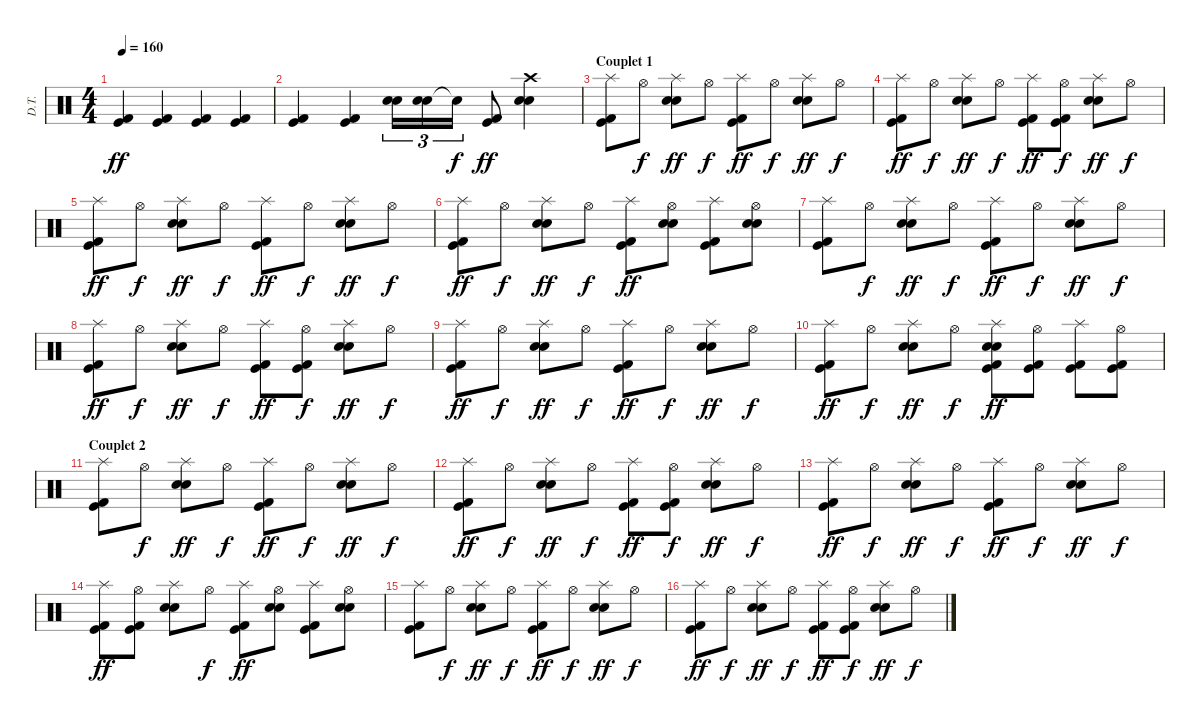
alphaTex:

\track ("D.T." "D.T.") {instrument percussion}
\staff {score}
\articulation defaults
\ts (4 4)
\tempo 160
\clef neutral
\ks c
("Kick (hit)" "Kick (hit) 2").4{dy ff} ("Kick (hit)" "Kick (hit) 2").4 ("Kick (hit)" "Kick (hit) 2").4 ("Kick (hit)" "Kick (hit) 2").4 |
("Kick (hit)" "Kick (hit) 2").4 ("Kick (hit)" "Kick (hit) 2").4 ("Snare (hit) 2" "Electric Snare (hit)").16{tu (3 2)} ("Snare (hit) 2" "Electric Snare (hit)").16{tu (3 2)} "Electric Snare (hit)"{t}.16{tu (3 2) dy f} ("Kick (hit)" "Kick (hit) 2").8{dy ff} ("Crash high (hit)" "Snare (hit) 2" "Electric Snare (hit)").4 |
\section ("" "Couplet 1")
("Splash (hit)" "Kick (hit)" "Kick (hit) 2").8 "Hi-Hat (open)".8{dy f} ("Splash (hit)" "Snare (hit) 2" "Electric Snare (hit)").8{dy ff} "Hi-Hat (open)".8{dy f} ("Splash (hit)" "Kick (hit)" "Kick (hit) 2").8{dy ff} "Hi-Hat (open)".8{dy f} ("Splash (hit)" "Snare (hit) 2" "Electric Snare (hit)").8{dy ff} "Hi-Hat (open)".8{dy f} |
("Splash (hit)" "Kick (hit)" "Kick (hit) 2").8{dy ff} "Hi-Hat (open)".8{dy f} ("Splash (hit)" "Snare (hit) 2" "Electric Snare (hit)").8{dy ff} "Hi-Hat (open)".8{dy f} ("Splash (hit)" "Kick (hit)" "Kick (hit) 2").8{dy ff} ("Hi-Hat (open)" "Kick (hit)" "Kick (hit) 2").8{dy f} ("Splash (hit)" "Snare (hit) 2" "Electric Snare (hit)").8{dy ff} "Hi-Hat (open)".8{dy f} |
("Splash (hit)" "Kick (hit)" "Kick (hit) 2").8{dy ff} "Hi-Hat (open)".8{dy f} ("Splash (hit)" "Snare (hit) 2" "Electric Snare (hit)").8{dy ff} "Hi-Hat (open)".8{dy f} ("Splash (hit)" "Kick (hit)" "Kick (hit) 2").8{dy ff} "Hi-Hat (open)".8{dy f} ("Splash (hit)" "Snare (hit) 2" "Electric Snare (hit)").8{dy ff} "Hi-Hat (open)".8{dy f} |
("Splash (hit)" "Kick (hit)" "Kick (hit) 2").8{dy ff} "Hi-Hat (open)".8{dy f} ("Splash (hit)" "Snare (hit) 2" "Electric Snare (hit)").8{dy ff} "Hi-Hat (open)".8{dy f} ("Splash (hit)" "Kick (hit)" "Kick (hit) 2").8{dy ff} ("Hi-Hat (open)" "Snare (hit) 2" "Electric Snare (hit)").8 ("Splash (hit)" "Kick (hit)" "Kick (hit) 2").8 ("Hi-Hat (open)" "Snare (hit) 2" "Electric Snare (hit)").8 |
("Splash (hit)" "Kick (hit)" "Kick (hit) 2").8 "Hi-Hat (open)".8{dy f} ("Splash (hit)" "Snare (hit) 2" "Electric Snare (hit)").8{dy ff} "Hi-Hat (open)".8{dy f} ("Splash (hit)" "Kick (hit)" "Kick (hit) 2").8{dy ff} "Hi-Hat (open)".8{dy f} ("Splash (hit)" "Snare (hit) 2" "Electric Snare (hit)").8{dy ff} "Hi-Hat (open)".8{dy f} |
("Splash (hit)" "Kick (hit)" "Kick (hit) 2").8{dy ff} "Hi-Hat (open)".8{dy f} ("Splash (hit)" "Snare (hit) 2" "Electric Snare (hit)").8{dy ff} "Hi-Hat (open)".8{dy f} ("Splash (hit)" "Kick (hit)" "Kick (hit) 2").8{dy ff} ("Hi-Hat (open)" "Kick (hit)" "Kick (hit) 2").8{dy f} ("Splash (hit)" "Snare (hit) 2" "Electric Snare (hit)").8{dy ff} "Hi-Hat (open)".8{dy f} |
("Splash (hit)" "Kick (hit)" "Kick (hit) 2").8{dy ff} "Hi-Hat (open)".8{dy f} ("Splash (hit)" "Snare (hit) 2" "Electric Snare (hit)").8{dy ff} "Hi-Hat (open)".8{dy f} ("Splash (hit)" "Kick (hit)" "Kick (hit) 2").8{dy ff} "Hi-Hat (open)".8{dy f} ("Splash (hit)" "Snare (hit) 2" "Electric Snare (hit)").8{dy ff} "Hi-Hat (open)".8{dy f} |
("Splash (hit)" "Kick (hit)" "Kick (hit) 2").8{dy ff} "Hi-Hat (open)".8{dy f} ("Splash (hit)" "Snare (hit) 2" "Electric Snare (hit)").8{dy ff} "Hi-Hat (open)".8{dy f} ("Splash (hit)" "Snare (hit) 2" "Electric Snare (hit)" "Kick (hit)" "Kick (hit) 2").8{dy ff} ("Hi-Hat (open)" "Kick (hit)" "Kick (hit) 2").8 ("Splash (hit)" "Kick (hit)" "Kick (hit) 2").8 ("Hi-Hat (open)" "Kick (hit)" "Kick (hit) 2").8 |
\section ("" "Couplet 2")
("Splash (hit)" "Kick (hit)" "Kick (hit) 2").8 "Hi-Hat (open)".8{dy f} ("Splash (hit)" "Snare (hit) 2" "Electric Snare (hit)").8{dy ff} "Hi-Hat (open)".8{dy f} ("Splash (hit)" "Kick (hit)" "Kick (hit) 2").8{dy ff} "Hi-Hat (open)".8{dy f} ("Splash (hit)" "Snare (hit) 2" "Electric Snare (hit)").8{dy ff} "Hi-Hat (open)".8{dy f} |
("Splash (hit)" "Kick (hit)" "Kick (hit) 2").8{dy ff} "Hi-Hat (open)".8{dy f} ("Splash (hit)" "Snare (hit) 2" "Electric Snare (hit)").8{dy ff} "Hi-Hat (open)".8{dy f} ("Splash (hit)" "Kick (hit)" "Kick (hit) 2").8{dy ff} ("Hi-Hat (open)" "Kick (hit)" "Kick (hit) 2").8{dy f} ("Splash (hit)" "Snare (hit) 2" "Electric Snare (hit)").8{dy ff} "Hi-Hat (open)".8{dy f} |
("Splash (hit)" "Kick (hit)" "Kick (hit) 2").8{dy ff} "Hi-Hat (open)".8{dy f} ("Splash (hit)" "Snare (hit) 2" "Electric Snare (hit)").8{dy ff} "Hi-Hat (open)".8{dy f} ("Splash (hit)" "Kick (hit)" "Kick (hit) 2").8{dy ff} "Hi-Hat (open)".8{dy f} ("Splash (hit)" "Snare (hit) 2" "Electric Snare (hit)").8{dy ff} "Hi-Hat (open)".8{dy f} |
("Splash (hit)" "Kick (hit)" "Kick (hit) 2").8{dy ff} ("Hi-Hat (open)" "Kick (hit)" "Kick (hit) 2").8 ("Splash (hit)" "Snare (hit) 2" "Electric Snare (hit)").8 "Hi-Hat (open)".8{dy f} ("Splash (hit)" "Kick (hit)" "Kick (hit) 2").8{dy ff} ("Hi-Hat (open)" "Snare (hit) 2" "Electric Snare (hit)").8 ("Splash (hit)" "Kick (hit)" "Kick (hit) 2").8 ("Hi-Hat (open)" "Snare (hit) 2" "Electric Snare (hit)").8 |
("Splash (hit)" "Kick (hit)" "Kick (hit) 2").8 "Hi-Hat (open)".8{dy f} ("Splash (hit)" "Snare (hit) 2" "Electric Snare (hit)").8{dy ff} "Hi-Hat (open)".8{dy f} ("Splash (hit)" "Kick (hit)" "Kick (hit) 2").8{dy ff} "Hi-Hat (open)".8{dy f} ("Splash (hit)" "Snare (hit) 2" "Electric Snare (hit)").8{dy ff} "Hi-Hat (open)".8{dy f} |
("Splash (hit)" "Kick (hit)" "Kick (hit) 2").8{dy ff} "Hi-Hat (open)".8{dy f} ("Splash (hit)" "Snare (hit) 2" "Electric Snare (hit)").8{dy ff} "Hi-Hat (open)".8{dy f} ("Splash (hit)" "Kick (hit)" "Kick (hit) 2").8{dy ff} ("Hi-Hat (open)" "Kick (hit)" "Kick (hit) 2").8{dy f} ("Splash (hit)" "Snare (hit) 2" "Electric Snare (hit)").8{dy ff} "Hi-Hat (open)".8{dy f}
